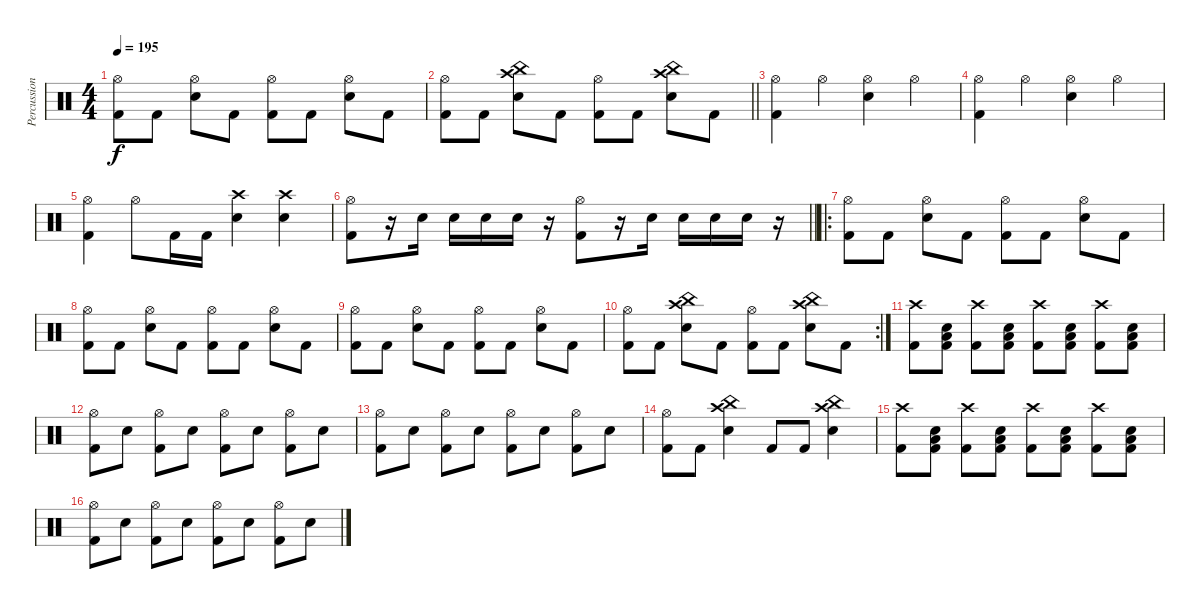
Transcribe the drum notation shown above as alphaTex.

\track ("Percussion" "Percussion") {instrument percussion}
\staff {score}
\articulation defaults
\ts (4 4)
\tempo 195
\clef neutral
\ks c
("Hi-Hat (open)" "Kick (hit) 2").8{dy f} "Kick (hit) 2".8 ("Hi-Hat (open)" "Snare (hit) 2").8 "Kick (hit) 2".8 ("Hi-Hat (open)" "Kick (hit) 2").8 "Kick (hit) 2".8 ("Hi-Hat (open)" "Snare (hit) 2").8 "Kick (hit) 2".8 |
\barLineRight lightlight
("Hi-Hat (open)" "Kick (hit) 2").8 "Kick (hit) 2".8 ("Crash high (hit)" "China (hit)" "Snare (hit) 2").8 "Kick (hit) 2".8 ("Hi-Hat (open)" "Kick (hit) 2").8 "Kick (hit) 2".8 ("Crash high (hit)" "China (hit)" "Snare (hit) 2").8 "Kick (hit) 2".8 |
\section ("" "")
("Hi-Hat (open)" "Kick (hit) 2").4 "Hi-Hat (open)".4 ("Hi-Hat (open)" "Snare (hit) 2").4 "Hi-Hat (open)".4 |
("Hi-Hat (open)" "Kick (hit) 2").4 "Hi-Hat (open)".4 ("Hi-Hat (open)" "Snare (hit) 2").4 "Hi-Hat (open)".4 |
("Hi-Hat (open)" "Kick (hit) 2").4 "Hi-Hat (open)".8 "Kick (hit) 2".16 "Kick (hit) 2".16 ("Crash high (hit)" "Snare (hit) 2").4 ("Crash high (hit)" "Snare (hit) 2").4 |
\barLineRight lightlight
("Hi-Hat (open)" "Kick (hit) 2").8 r.16 "Snare (hit) 2".16 "Snare (hit) 2".16 "Snare (hit) 2".16 "Snare (hit) 2".16 r.16 ("Hi-Hat (open)" "Kick (hit) 2").8 r.16 "Snare (hit) 2".16 "Snare (hit) 2".16 "Snare (hit) 2".16 "Snare (hit) 2".16 r.16 |
\ro
\section ("" "")
("Hi-Hat (open)" "Kick (hit) 2").8 "Kick (hit) 2".8 ("Hi-Hat (open)" "Snare (hit) 2").8 "Kick (hit) 2".8 ("Hi-Hat (open)" "Kick (hit) 2").8 "Kick (hit) 2".8 ("Hi-Hat (open)" "Snare (hit) 2").8 "Kick (hit) 2".8 |
("Hi-Hat (open)" "Kick (hit) 2").8 "Kick (hit) 2".8 ("Hi-Hat (open)" "Snare (hit) 2").8 "Kick (hit) 2".8 ("Hi-Hat (open)" "Kick (hit) 2").8 "Kick (hit) 2".8 ("Hi-Hat (open)" "Snare (hit) 2").8 "Kick (hit) 2".8 |
("Hi-Hat (open)" "Kick (hit) 2").8 "Kick (hit) 2".8 ("Hi-Hat (open)" "Snare (hit) 2").8 "Kick (hit) 2".8 ("Hi-Hat (open)" "Kick (hit) 2").8 "Kick (hit) 2".8 ("Hi-Hat (open)" "Snare (hit) 2").8 "Kick (hit) 2".8 |
\rc 2
("Hi-Hat (open)" "Kick (hit) 2").8 "Kick (hit) 2".8 ("Crash high (hit)" "China (hit)" "Snare (hit) 2").8 "Kick (hit) 2".8 ("Hi-Hat (open)" "Kick (hit) 2").8 "Kick (hit) 2".8 ("Crash high (hit)" "China (hit)" "Snare (hit) 2").8 "Kick (hit) 2".8 |
\section ("" "")
("Crash high (hit)" "Kick (hit) 2").8 ("Low Floor Tom (hit)" "Snare (hit) 2" "Kick (hit) 2").8 ("Crash high (hit)" "Kick (hit) 2").8 ("Low Floor Tom (hit)" "Snare (hit) 2" "Kick (hit) 2").8 ("Crash high (hit)" "Kick (hit) 2").8 ("Low Floor Tom (hit)" "Snare (hit) 2" "Kick (hit) 2").8 ("Crash high (hit)" "Kick (hit) 2").8 ("Low Floor Tom (hit)" "Snare (hit) 2" "Kick (hit) 2").8 |
("Hi-Hat (open)" "Kick (hit) 2").8 "Snare (hit) 2".8 ("Hi-Hat (open)" "Kick (hit) 2").8 "Snare (hit) 2".8 ("Hi-Hat (open)" "Kick (hit) 2").8 "Snare (hit) 2".8 ("Hi-Hat (open)" "Kick (hit) 2").8 "Snare (hit) 2".8 |
("Hi-Hat (open)" "Kick (hit) 2").8 "Snare (hit) 2".8 ("Hi-Hat (open)" "Kick (hit) 2").8 "Snare (hit) 2".8 ("Hi-Hat (open)" "Kick (hit) 2").8 "Snare (hit) 2".8 ("Hi-Hat (open)" "Kick (hit) 2").8 "Snare (hit) 2".8 |
("Hi-Hat (open)" "Kick (hit) 2").8 "Kick (hit) 2".8 ("Crash high (hit)" "China (hit)" "Snare (hit) 2").4 "Kick (hit) 2".8 "Kick (hit) 2".8 ("Crash high (hit)" "China (hit)" "Snare (hit) 2").4 |
("Crash high (hit)" "Kick (hit) 2").8 ("Low Floor Tom (hit)" "Snare (hit) 2" "Kick (hit) 2").8 ("Crash high (hit)" "Kick (hit) 2").8 ("Low Floor Tom (hit)" "Snare (hit) 2" "Kick (hit) 2").8 ("Crash high (hit)" "Kick (hit) 2").8 ("Low Floor Tom (hit)" "Snare (hit) 2" "Kick (hit) 2").8 ("Crash high (hit)" "Kick (hit) 2").8 ("Low Floor Tom (hit)" "Snare (hit) 2" "Kick (hit) 2").8 |
("Hi-Hat (open)" "Kick (hit) 2").8 "Snare (hit) 2".8 ("Hi-Hat (open)" "Kick (hit) 2").8 "Snare (hit) 2".8 ("Hi-Hat (open)" "Kick (hit) 2").8 "Snare (hit) 2".8 ("Hi-Hat (open)" "Kick (hit) 2").8 "Snare (hit) 2".8
